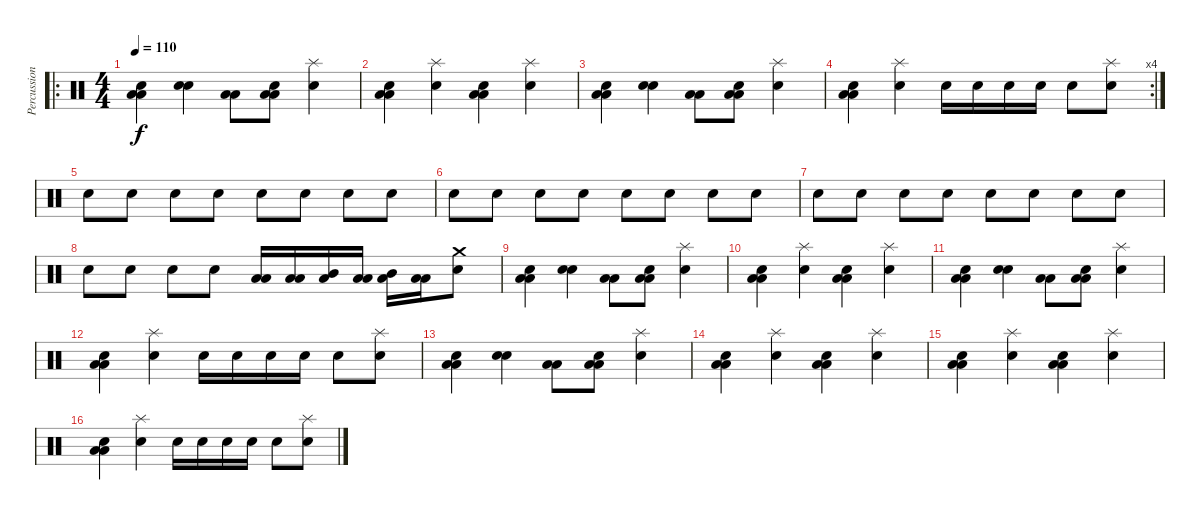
\track ("Percussions" "Percussion") {instrument percussion}
\staff {score}
\articulation defaults
\ro
\ts (4 4)
\tempo 110
\clef neutral
\ks c
("Snare (hit) 2" "Low Floor Tom (hit)" "Low Floor Tom (hit)").4{dy f} ("Snare (hit) 2" "Electric Snare (hit)").4 ("Low Floor Tom (hit)" "Low Floor Tom (hit)").8 ("Low Floor Tom (hit)" "Low Floor Tom (hit)" "Electric Snare (hit)").8 ("Snare (hit) 2" "Splash (hit)").4 |
("Snare (hit) 2" "Low Floor Tom (hit)" "Low Floor Tom (hit)").4 ("Snare (hit) 2" "Splash (hit)").4 ("Snare (hit) 2" "Low Floor Tom (hit)" "Low Floor Tom (hit)").4 ("Snare (hit) 2" "Splash (hit)").4 |
("Snare (hit) 2" "Low Floor Tom (hit)" "Low Floor Tom (hit)").4 ("Snare (hit) 2" "Electric Snare (hit)").4 ("Low Floor Tom (hit)" "Low Floor Tom (hit)").8 ("Low Floor Tom (hit)" "Low Floor Tom (hit)" "Electric Snare (hit)").8 ("Snare (hit) 2" "Splash (hit)").4 |
\rc 4
("Snare (hit) 2" "Low Floor Tom (hit)" "Low Floor Tom (hit)").4 ("Snare (hit) 2" "Splash (hit)").4 "Snare (hit) 2".16 "Snare (hit) 2".16 "Snare (hit) 2".16 "Snare (hit) 2".16 "Snare (hit) 2".8 ("Snare (hit) 2" "Splash (hit)").8 |
"Snare (hit) 2".8 "Snare (hit) 2".8 "Snare (hit) 2".8 "Snare (hit) 2".8 "Snare (hit) 2".8 "Snare (hit) 2".8 "Snare (hit) 2".8 "Snare (hit) 2".8 |
"Snare (hit) 2".8 "Snare (hit) 2".8 "Snare (hit) 2".8 "Snare (hit) 2".8 "Snare (hit) 2".8 "Snare (hit) 2".8 "Snare (hit) 2".8 "Snare (hit) 2".8 |
"Snare (hit) 2".8 "Snare (hit) 2".8 "Snare (hit) 2".8 "Snare (hit) 2".8 "Snare (hit) 2".8 "Snare (hit) 2".8 "Snare (hit) 2".8 "Snare (hit) 2".8 |
"Snare (hit) 2".8 "Snare (hit) 2".8 "Snare (hit) 2".8 "Snare (hit) 2".8 ("Low Floor Tom (hit)" "Low Floor Tom (hit)").16 ("Low Floor Tom (hit)" "Low Floor Tom (hit)").16 ("Mid Tom (hit)" "Low Floor Tom (hit)").16 ("Low Floor Tom (hit)" "Low Floor Tom (hit)").16 ("Mid Tom (hit)" "Low Floor Tom (hit)").16 ("Low Floor Tom (hit)" "Low Floor Tom (hit)").16 ("Snare (hit) 2" "Crash medium (hit)").8 |
("Snare (hit) 2" "Low Floor Tom (hit)" "Low Floor Tom (hit)").4 ("Snare (hit) 2" "Electric Snare (hit)").4 ("Low Floor Tom (hit)" "Low Floor Tom (hit)").8 ("Low Floor Tom (hit)" "Low Floor Tom (hit)" "Electric Snare (hit)").8 ("Snare (hit) 2" "Splash (hit)").4 |
("Snare (hit) 2" "Low Floor Tom (hit)" "Low Floor Tom (hit)").4 ("Snare (hit) 2" "Splash (hit)").4 ("Snare (hit) 2" "Low Floor Tom (hit)" "Low Floor Tom (hit)").4 ("Snare (hit) 2" "Splash (hit)").4 |
("Snare (hit) 2" "Low Floor Tom (hit)" "Low Floor Tom (hit)").4 ("Snare (hit) 2" "Electric Snare (hit)").4 ("Low Floor Tom (hit)" "Low Floor Tom (hit)").8 ("Low Floor Tom (hit)" "Low Floor Tom (hit)" "Electric Snare (hit)").8 ("Snare (hit) 2" "Splash (hit)").4 |
("Snare (hit) 2" "Low Floor Tom (hit)" "Low Floor Tom (hit)").4 ("Snare (hit) 2" "Splash (hit)").4 "Snare (hit) 2".16 "Snare (hit) 2".16 "Snare (hit) 2".16 "Snare (hit) 2".16 "Snare (hit) 2".8 ("Snare (hit) 2" "Splash (hit)").8 |
("Snare (hit) 2" "Low Floor Tom (hit)" "Low Floor Tom (hit)").4 ("Snare (hit) 2" "Electric Snare (hit)").4 ("Low Floor Tom (hit)" "Low Floor Tom (hit)").8 ("Low Floor Tom (hit)" "Low Floor Tom (hit)" "Electric Snare (hit)").8 ("Snare (hit) 2" "Splash (hit)").4 |
("Snare (hit) 2" "Low Floor Tom (hit)" "Low Floor Tom (hit)").4 ("Snare (hit) 2" "Splash (hit)").4 ("Snare (hit) 2" "Low Floor Tom (hit)" "Low Floor Tom (hit)").4 ("Snare (hit) 2" "Splash (hit)").4 |
("Snare (hit) 2" "Low Floor Tom (hit)" "Low Floor Tom (hit)").4 ("Snare (hit) 2" "Splash (hit)").4 ("Snare (hit) 2" "Low Floor Tom (hit)" "Low Floor Tom (hit)").4 ("Snare (hit) 2" "Splash (hit)").4 |
("Snare (hit) 2" "Low Floor Tom (hit)" "Low Floor Tom (hit)").4 ("Snare (hit) 2" "Splash (hit)").4 "Snare (hit) 2".16 "Snare (hit) 2".16 "Snare (hit) 2".16 "Snare (hit) 2".16 "Snare (hit) 2".8 ("Snare (hit) 2" "Splash (hit)").8
